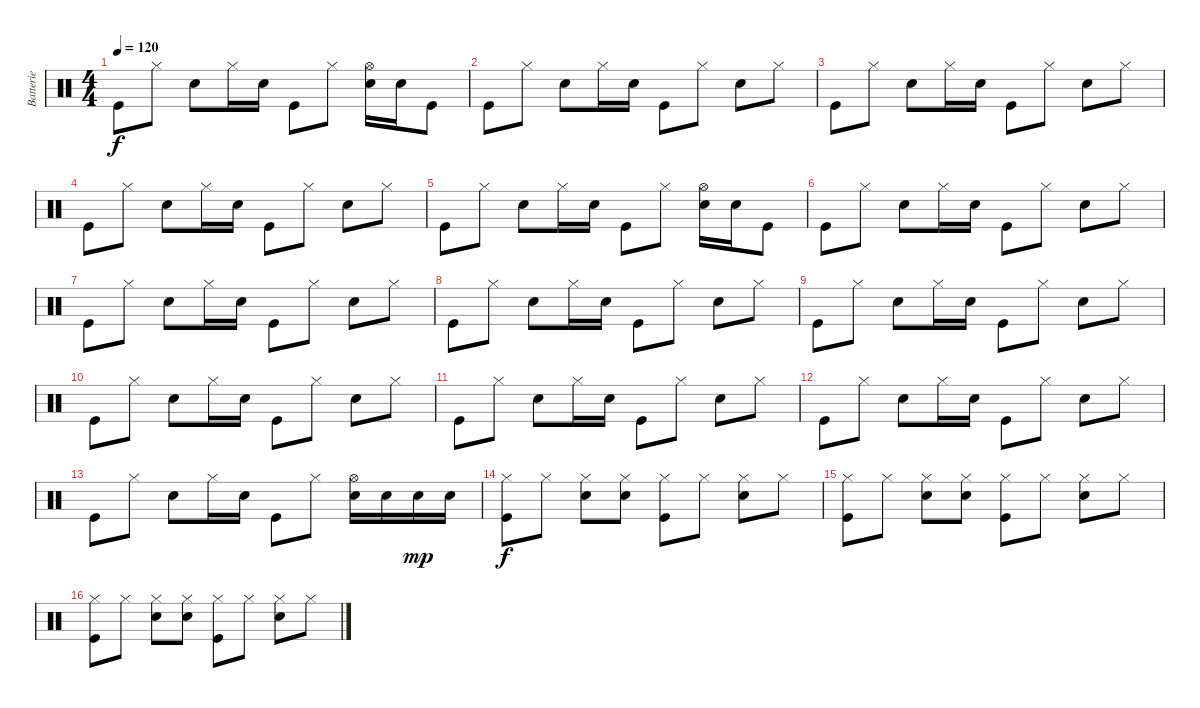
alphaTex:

\track ("Batterie" "Batterie") {instrument percussion}
\staff {score}
\articulation defaults
\ts (4 4)
\tempo 120
\clef neutral
\ks c "Kick (hit)".8{dy f} "Hi-Hat (closed)".8 "Snare (hit) 2".8 "Hi-Hat (closed)".16 "Snare (hit) 2".16 "Kick (hit)".8 "Hi-Hat (closed)".8
("Snare (hit) 2" "Hi-Hat (open)").16 "Snare (hit) 2".16 "Kick (hit)".8 |
"Kick (hit)".8 "Hi-Hat (closed)".8 "Snare (hit) 2".8 "Hi-Hat (closed)".16 "Snare (hit) 2".16 "Kick (hit)".8 "Hi-Hat (closed)".8 "Snare (hit) 2".8 "Hi-Hat (closed)".8 |
"Kick (hit)".8 "Hi-Hat (closed)".8 "Snare (hit) 2".8 "Hi-Hat (closed)".16 "Snare (hit) 2".16 "Kick (hit)".8 "Hi-Hat (closed)".8 "Snare (hit) 2".8 "Hi-Hat (closed)".8 |
"Kick (hit)".8 "Hi-Hat (closed)".8 "Snare (hit) 2".8 "Hi-Hat (closed)".16 "Snare (hit) 2".16 "Kick (hit)".8 "Hi-Hat (closed)".8 "Snare (hit) 2".8 "Hi-Hat (closed)".8 |
"Kick (hit)".8 "Hi-Hat (closed)".8 "Snare (hit) 2".8 "Hi-Hat (closed)".16 "Snare (hit) 2".16 "Kick (hit)".8 "Hi-Hat (closed)".8 ("Snare (hit) 2" "Hi-Hat (open)").16 "Snare (hit) 2".16 "Kick (hit)".8 |
"Kick (hit)".8 "Hi-Hat (closed)".8 "Snare (hit) 2".8 "Hi-Hat (closed)".16 "Snare (hit) 2".16 "Kick (hit)".8 "Hi-Hat (closed)".8 "Snare (hit) 2".8 "Hi-Hat (closed)".8 |
"Kick (hit)".8 "Hi-Hat (closed)".8 "Snare (hit) 2".8 "Hi-Hat (closed)".16 "Snare (hit) 2".16 "Kick (hit)".8 "Hi-Hat (closed)".8 "Snare (hit) 2".8 "Hi-Hat (closed)".8 |
"Kick (hit)".8 "Hi-Hat (closed)".8 "Snare (hit) 2".8 "Hi-Hat (closed)".16 "Snare (hit) 2".16 "Kick (hit)".8 "Hi-Hat (closed)".8 "Snare (hit) 2".8 "Hi-Hat (closed)".8 |
"Kick (hit)".8 "Hi-Hat (closed)".8 "Snare (hit) 2".8 "Hi-Hat (closed)".16 "Snare (hit) 2".16 "Kick (hit)".8 "Hi-Hat (closed)".8 "Snare (hit) 2".8 "Hi-Hat (closed)".8 |
"Kick (hit)".8 "Hi-Hat (closed)".8 "Snare (hit) 2".8 "Hi-Hat (closed)".16 "Snare (hit) 2".16 "Kick (hit)".8 "Hi-Hat (closed)".8 "Snare (hit) 2".8 "Hi-Hat (closed)".8 |
"Kick (hit)".8 "Hi-Hat (closed)".8 "Snare (hit) 2".8 "Hi-Hat (closed)".16 "Snare (hit) 2".16 "Kick (hit)".8 "Hi-Hat (closed)".8 "Snare (hit) 2".8 "Hi-Hat (closed)".8 |
"Kick (hit)".8 "Hi-Hat (closed)".8 "Snare (hit) 2".8 "Hi-Hat (closed)".16 "Snare (hit) 2".16 "Kick (hit)".8 "Hi-Hat (closed)".8 "Snare (hit) 2".8 "Hi-Hat (closed)".8 |
"Kick (hit)".8 "Hi-Hat (closed)".8 "Snare (hit) 2".8 "Hi-Hat (closed)".16 "Snare (hit) 2".16 "Kick (hit)".8 "Hi-Hat (closed)".8 ("Snare (hit) 2" "Hi-Hat (open)").16 "Snare (hit) 2".16 "Snare (hit) 2".16{dy mp} "Snare (hit) 2".16 |
("Hi-Hat (closed)" "Kick (hit)").8{dy f} "Hi-Hat (closed)".8 ("Hi-Hat (closed)" "Snare (hit) 2").8 ("Hi-Hat (closed)" "Snare (hit) 2").8 ("Hi-Hat (closed)" "Kick (hit)").8 "Hi-Hat (closed)".8 ("Hi-Hat (closed)" "Snare (hit) 2").8 "Hi-Hat (closed)".8 |
("Hi-Hat (closed)" "Kick (hit)").8 "Hi-Hat (closed)".8 ("Hi-Hat (closed)" "Snare (hit) 2").8 ("Hi-Hat (closed)" "Snare (hit) 2").8 ("Hi-Hat (closed)" "Kick (hit)").8 "Hi-Hat (closed)".8 ("Hi-Hat (closed)" "Snare (hit) 2").8 "Hi-Hat (closed)".8 |
("Hi-Hat (closed)" "Kick (hit)").8 "Hi-Hat (closed)".8 ("Hi-Hat (closed)" "Snare (hit) 2").8 ("Hi-Hat (closed)" "Snare (hit) 2").8 ("Hi-Hat (closed)" "Kick (hit)").8 "Hi-Hat (closed)".8 ("Hi-Hat (closed)" "Snare (hit) 2").8 "Hi-Hat (closed)".8
